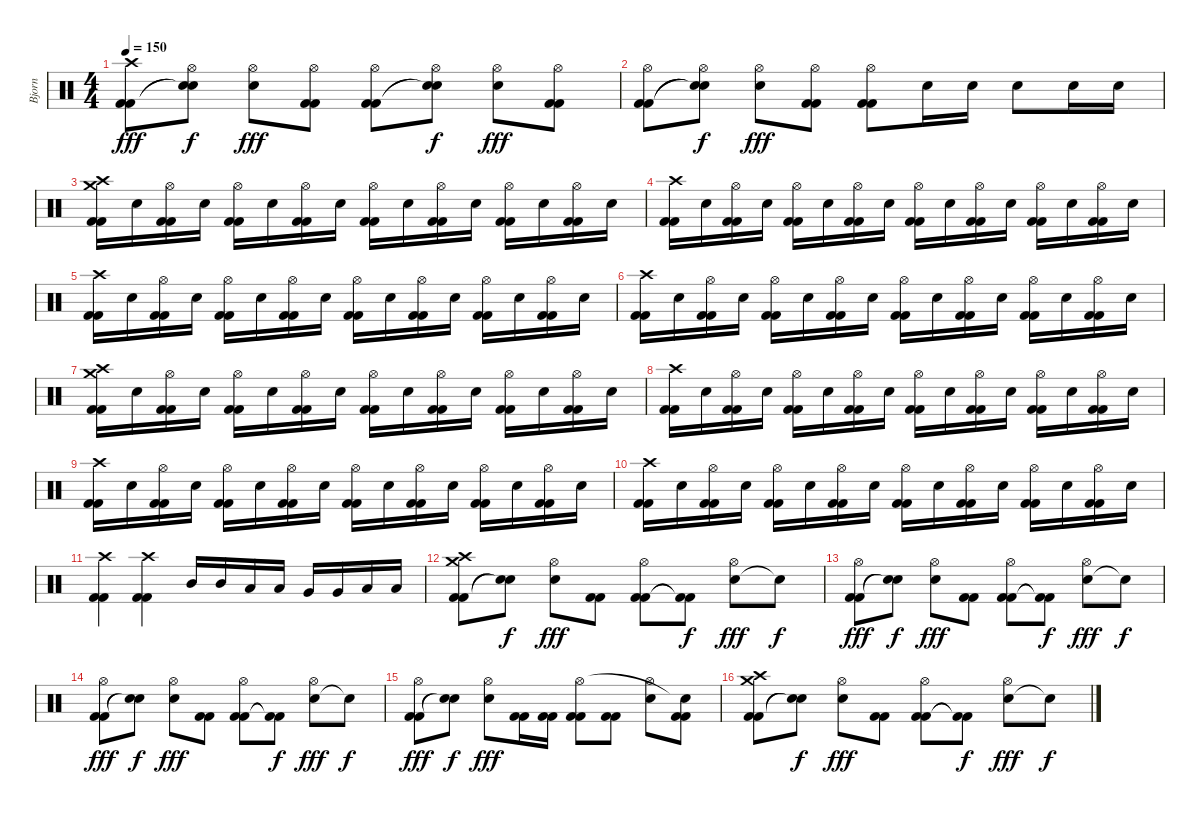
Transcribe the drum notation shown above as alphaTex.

\track ("Bjorn" "Bjorn") {instrument percussion}
\staff {score}
\articulation defaults
\ts (4 4)
\tempo 150
\clef neutral
\ks c
("Kick (hit) 2" "Kick (hit) 2" "Crash high (hit)").8{dy fff} ("Snare (hit)"{t} "Snare (hit)"{t} "Hi-Hat (open)").8{dy f} ("Snare (hit) 2" "Hi-Hat (open)").8{dy fff} ("Kick (hit) 2" "Kick (hit) 2" "Hi-Hat (open)").8 ("Kick (hit) 2" "Kick (hit) 2" "Hi-Hat (open)").8 ("Snare (hit)"{t} "Snare (hit)"{t} "Hi-Hat (open)").8{dy f} ("Snare (hit) 2" "Hi-Hat (open)").8{dy fff} ("Kick (hit) 2" "Kick (hit) 2" "Hi-Hat (open)").8 |
("Kick (hit) 2" "Kick (hit) 2" "Hi-Hat (open)").8 ("Snare (hit)"{t} "Snare (hit)"{t} "Hi-Hat (open)").8{dy f} ("Snare (hit) 2" "Hi-Hat (open)").8{dy fff} ("Kick (hit) 2" "Kick (hit) 2" "Hi-Hat (open)").8 ("Kick (hit) 2" "Kick (hit) 2" "Hi-Hat (open)").8 "Snare (hit) 2".16 "Snare (hit) 2".16 "Snare (hit) 2".8 "Snare (hit) 2".16 "Snare (hit) 2".16 |
("Kick (hit) 2" "Kick (hit) 2" "Crash high (hit)" "Crash medium (hit)").16 "Snare (hit) 2".16 ("Kick (hit) 2" "Kick (hit) 2" "Hi-Hat (open)").16 "Snare (hit) 2".16 ("Kick (hit) 2" "Kick (hit) 2" "Hi-Hat (open)").16 "Snare (hit) 2".16 ("Kick (hit) 2" "Kick (hit) 2" "Hi-Hat (open)").16 "Snare (hit) 2".16 ("Kick (hit) 2" "Kick (hit) 2" "Hi-Hat (open)").16 "Snare (hit) 2".16 ("Kick (hit) 2" "Kick (hit) 2" "Hi-Hat (open)").16 "Snare (hit) 2".16 ("Kick (hit) 2" "Kick (hit) 2" "Hi-Hat (open)").16 "Snare (hit) 2".16 ("Kick (hit) 2" "Kick (hit) 2" "Hi-Hat (open)").16 "Snare (hit) 2".16 |
("Kick (hit) 2" "Kick (hit) 2" "Crash high (hit)").16 "Snare (hit) 2".16 ("Kick (hit) 2" "Kick (hit) 2" "Hi-Hat (open)").16 "Snare (hit) 2".16 ("Kick (hit) 2" "Kick (hit) 2" "Hi-Hat (open)").16 "Snare (hit) 2".16 ("Kick (hit) 2" "Kick (hit) 2" "Hi-Hat (open)").16 "Snare (hit) 2".16 ("Kick (hit) 2" "Kick (hit) 2" "Hi-Hat (open)").16 "Snare (hit) 2".16 ("Kick (hit) 2" "Kick (hit) 2" "Hi-Hat (open)").16 "Snare (hit) 2".16 ("Kick (hit) 2" "Kick (hit) 2" "Hi-Hat (open)").16 "Snare (hit) 2".16 ("Kick (hit) 2" "Kick (hit) 2" "Hi-Hat (open)").16 "Snare (hit) 2".16 |
("Kick (hit) 2" "Kick (hit) 2" "Crash high (hit)").16 "Snare (hit) 2".16 ("Kick (hit) 2" "Kick (hit) 2" "Hi-Hat (open)").16 "Snare (hit) 2".16 ("Kick (hit) 2" "Kick (hit) 2" "Hi-Hat (open)").16 "Snare (hit) 2".16 ("Kick (hit) 2" "Kick (hit) 2" "Hi-Hat (open)").16 "Snare (hit) 2".16 ("Kick (hit) 2" "Kick (hit) 2" "Hi-Hat (open)").16 "Snare (hit) 2".16 ("Kick (hit) 2" "Kick (hit) 2" "Hi-Hat (open)").16 "Snare (hit) 2".16 ("Kick (hit) 2" "Kick (hit) 2" "Hi-Hat (open)").16 "Snare (hit) 2".16 ("Kick (hit) 2" "Kick (hit) 2" "Hi-Hat (open)").16 "Snare (hit) 2".16 |
("Kick (hit) 2" "Kick (hit) 2" "Crash high (hit)").16 "Snare (hit) 2".16 ("Kick (hit) 2" "Kick (hit) 2" "Hi-Hat (open)").16 "Snare (hit) 2".16 ("Kick (hit) 2" "Kick (hit) 2" "Hi-Hat (open)").16 "Snare (hit) 2".16 ("Kick (hit) 2" "Kick (hit) 2" "Hi-Hat (open)").16 "Snare (hit) 2".16 ("Kick (hit) 2" "Kick (hit) 2" "Hi-Hat (open)").16 "Snare (hit) 2".16 ("Kick (hit) 2" "Kick (hit) 2" "Hi-Hat (open)").16 "Snare (hit) 2".16 ("Kick (hit) 2" "Kick (hit) 2" "Hi-Hat (open)").16 "Snare (hit) 2".16 ("Kick (hit) 2" "Kick (hit) 2" "Hi-Hat (open)").16 "Snare (hit) 2".16 |
("Kick (hit) 2" "Kick (hit) 2" "Crash high (hit)" "Crash medium (hit)").16 "Snare (hit) 2".16 ("Kick (hit) 2" "Kick (hit) 2" "Hi-Hat (open)").16 "Snare (hit) 2".16 ("Kick (hit) 2" "Kick (hit) 2" "Hi-Hat (open)").16 "Snare (hit) 2".16 ("Kick (hit) 2" "Kick (hit) 2" "Hi-Hat (open)").16 "Snare (hit) 2".16 ("Kick (hit) 2" "Kick (hit) 2" "Hi-Hat (open)").16 "Snare (hit) 2".16 ("Kick (hit) 2" "Kick (hit) 2" "Hi-Hat (open)").16 "Snare (hit) 2".16 ("Kick (hit) 2" "Kick (hit) 2" "Hi-Hat (open)").16 "Snare (hit) 2".16 ("Kick (hit) 2" "Kick (hit) 2" "Hi-Hat (open)").16 "Snare (hit) 2".16 |
("Kick (hit) 2" "Kick (hit) 2" "Crash high (hit)").16 "Snare (hit) 2".16 ("Kick (hit) 2" "Kick (hit) 2" "Hi-Hat (open)").16 "Snare (hit) 2".16 ("Kick (hit) 2" "Kick (hit) 2" "Hi-Hat (open)").16 "Snare (hit) 2".16 ("Kick (hit) 2" "Kick (hit) 2" "Hi-Hat (open)").16 "Snare (hit) 2".16 ("Kick (hit) 2" "Kick (hit) 2" "Hi-Hat (open)").16 "Snare (hit) 2".16 ("Kick (hit) 2" "Kick (hit) 2" "Hi-Hat (open)").16 "Snare (hit) 2".16 ("Kick (hit) 2" "Kick (hit) 2" "Hi-Hat (open)").16 "Snare (hit) 2".16 ("Kick (hit) 2" "Kick (hit) 2" "Hi-Hat (open)").16 "Snare (hit) 2".16 |
("Kick (hit) 2" "Kick (hit) 2" "Crash high (hit)").16 "Snare (hit) 2".16 ("Kick (hit) 2" "Kick (hit) 2" "Hi-Hat (open)").16 "Snare (hit) 2".16 ("Kick (hit) 2" "Kick (hit) 2" "Hi-Hat (open)").16 "Snare (hit) 2".16 ("Kick (hit) 2" "Kick (hit) 2" "Hi-Hat (open)").16 "Snare (hit) 2".16 ("Kick (hit) 2" "Kick (hit) 2" "Hi-Hat (open)").16 "Snare (hit) 2".16 ("Kick (hit) 2" "Kick (hit) 2" "Hi-Hat (open)").16 "Snare (hit) 2".16 ("Kick (hit) 2" "Kick (hit) 2" "Hi-Hat (open)").16 "Snare (hit) 2".16 ("Kick (hit) 2" "Kick (hit) 2" "Hi-Hat (open)").16 "Snare (hit) 2".16 |
("Kick (hit) 2" "Kick (hit) 2" "Crash high (hit)").16 "Snare (hit) 2".16 ("Kick (hit) 2" "Kick (hit) 2" "Hi-Hat (open)").16 "Snare (hit) 2".16 ("Kick (hit) 2" "Kick (hit) 2" "Hi-Hat (open)").16 "Snare (hit) 2".16 ("Kick (hit) 2" "Kick (hit) 2" "Hi-Hat (open)").16 "Snare (hit) 2".16 ("Kick (hit) 2" "Kick (hit) 2" "Hi-Hat (open)").16 "Snare (hit) 2".16 ("Kick (hit) 2" "Kick (hit) 2" "Hi-Hat (open)").16 "Snare (hit) 2".16 ("Kick (hit) 2" "Kick (hit) 2" "Hi-Hat (open)").16 "Snare (hit) 2".16 ("Kick (hit) 2" "Kick (hit) 2" "Hi-Hat (open)").16 "Snare (hit) 2".16 |
("Kick (hit) 2" "Kick (hit) 2" "Crash high (hit)").4 ("Kick (hit) 2" "Kick (hit) 2" "Crash high (hit)").4 "Mid Tom (hit)".16 "Mid Tom (hit)".16 "Low Tom (hit)".16 "Low Tom (hit)".16 "Very Low Tom (hit)".16 "Very Low Tom (hit)".16 "Low Floor Tom (hit)".16 "Low Floor Tom (hit)".16 |
("Kick (hit) 2" "Kick (hit) 2" "Crash high (hit)" "Crash medium (hit)").8 ("Snare (hit)"{t} "Snare (hit)"{t}).8{dy f} ("Snare (hit) 2" "Hi-Hat (open)").8{dy fff} ("Kick (hit) 2" "Kick (hit) 2").8 ("Kick (hit) 2" "Kick (hit) 2" "Hi-Hat (open)").8 ("Kick (hit) 2"{t} "Kick (hit) 2"{t}).8{dy f} ("Snare (hit) 2" "Hi-Hat (open)").8{dy fff} "Snare (hit)"{t}.8{dy f} |
("Kick (hit) 2" "Kick (hit) 2" "Hi-Hat (open)").8{dy fff} ("Snare (hit)"{t} "Snare (hit)"{t}).8{dy f} ("Snare (hit) 2" "Hi-Hat (open)").8{dy fff} ("Kick (hit) 2" "Kick (hit) 2").8 ("Kick (hit) 2" "Kick (hit) 2" "Hi-Hat (open)").8 ("Kick (hit) 2"{t} "Kick (hit) 2"{t}).8{dy f} ("Snare (hit) 2" "Hi-Hat (open)").8{dy fff} "Snare (hit)"{t}.8{dy f} |
("Kick (hit) 2" "Kick (hit) 2" "Hi-Hat (open)").8{dy fff} ("Snare (hit)"{t} "Snare (hit)"{t}).8{dy f} ("Snare (hit) 2" "Hi-Hat (open)").8{dy fff} ("Kick (hit) 2" "Kick (hit) 2").8 ("Kick (hit) 2" "Kick (hit) 2" "Hi-Hat (open)").8 ("Kick (hit) 2"{t} "Kick (hit) 2"{t}).8{dy f} ("Snare (hit) 2" "Hi-Hat (open)").8{dy fff} "Snare (hit)"{t}.8{dy f} |
("Kick (hit) 2" "Kick (hit) 2" "Hi-Hat (open)").8{dy fff} ("Snare (hit)"{t} "Snare (hit)"{t}).8{dy f} ("Snare (hit) 2" "Hi-Hat (open)").8{dy fff} ("Kick (hit) 2" "Kick (hit) 2").16 ("Kick (hit) 2" "Kick (hit) 2").16 ("Kick (hit) 2" "Kick (hit) 2" "Hi-Hat (open)").8 ("Kick (hit) 2" "Kick (hit) 2").8 ("Snare (hit) 2" "Hi-Hat (open)").8 ("Kick (hit) 2" "Kick (hit) 2" "Snare (hit)"{t}).8 |
("Kick (hit) 2" "Kick (hit) 2" "Crash high (hit)" "Crash medium (hit)").8 ("Snare (hit)"{t} "Snare (hit)"{t}).8{dy f} ("Snare (hit) 2" "Hi-Hat (open)").8{dy fff} ("Kick (hit) 2" "Kick (hit) 2").8 ("Kick (hit) 2" "Kick (hit) 2" "Hi-Hat (open)").8 ("Kick (hit) 2"{t} "Kick (hit) 2"{t}).8{dy f} ("Snare (hit) 2" "Hi-Hat (open)").8{dy fff} "Snare (hit)"{t}.8{dy f}
